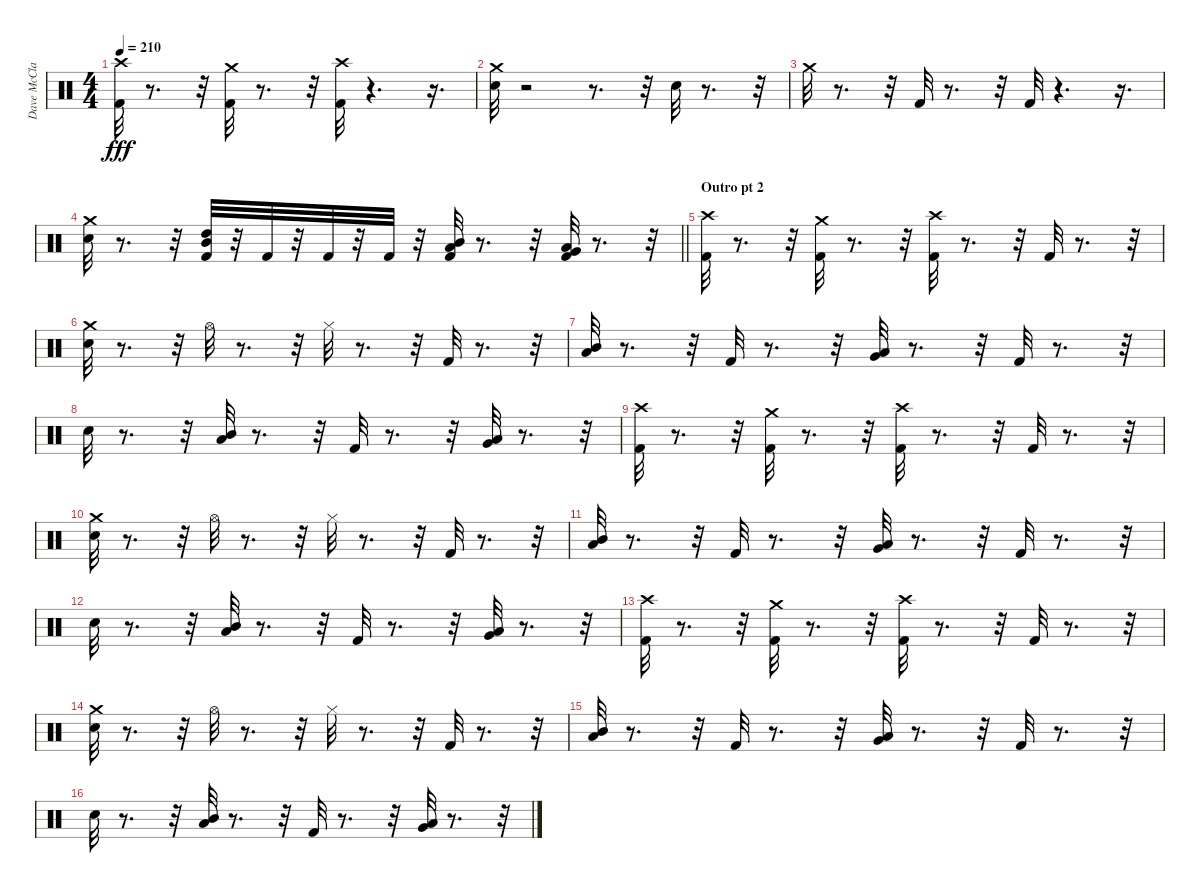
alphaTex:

\track ("Dave McClain" "Dave McCla") {instrument percussion}
\staff {score}
\articulation defaults
\ts (4 4)
\tempo 210
\clef neutral
\ks c
("Crash high (hit)" "Kick (hit) 2").32{dy fff} r.8{d} r.32 ("Crash medium (hit)" "Kick (hit) 2").32 r.8{d} r.32 ("Kick (hit) 2" "Crash high (hit)").32 r.4{d} r.16{d} |
("Crash medium (hit)" "Snare (hit) 2").32 r.2 r.8{d} r.32 "Snare (hit) 2".32 r.8{d} r.32 |
"Crash medium (hit)".32 r.8{d} r.32 "Kick (hit) 2".32 r.8{d} r.32 "Kick (hit) 2".32 r.4{d} r.16{d} |
\barLineRight lightlight
("Snare (hit) 2" "Crash medium (hit)").32 r.8{d} r.32 ("Kick (hit) 2" "Mid Tom (hit)" "High Tom (hit)").32 r.32 "Kick (hit) 2".32 r.32 "Kick (hit) 2".32 r.32 "Kick (hit) 2".32 r.32 ("Kick (hit) 2" "Mid Tom (hit)" "Low Tom (hit)").32 r.8{d} r.32 ("Kick (hit) 2" "Low Tom (hit)" "Very Low Tom (hit)").32 r.8{d} r.32 |
\section ("" "Outro pt 2")
("Crash high (hit)" "Kick (hit) 2").32 r.8{d} r.32 ("Crash medium (hit)" "Kick (hit) 2").32 r.8{d} r.32 ("Kick (hit) 2" "Crash high (hit)").32 r.8{d} r.32 "Kick (hit) 2".32 r.8{d} r.32 |
("Crash medium (hit)" "Snare (hit) 2").32 r.8{d} r.32 "Hi-Hat (open)".32 r.8{d} r.32 "Hi-Hat (closed)".32 r.8{d} r.32 "Kick (hit) 2".32 r.8{d} r.32 |
("Mid Tom (hit)" "Low Tom (hit)").32 r.8{d} r.32 "Kick (hit) 2".32 r.8{d} r.32 ("Low Tom (hit)" "Very Low Tom (hit)").32 r.8{d} r.32 "Kick (hit) 2".32 r.8{d} r.32 |
"Snare (hit) 2".32 r.8{d} r.32 ("Mid Tom (hit)" "Low Tom (hit)").32 r.8{d} r.32 "Kick (hit) 2".32 r.8{d} r.32 ("Low Tom (hit)" "Very Low Tom (hit)").32 r.8{d} r.32 |
("Crash high (hit)" "Kick (hit) 2").32 r.8{d} r.32 ("Crash medium (hit)" "Kick (hit) 2").32 r.8{d} r.32 ("Kick (hit) 2" "Crash high (hit)").32 r.8{d} r.32 "Kick (hit) 2".32 r.8{d} r.32 |
("Crash medium (hit)" "Snare (hit) 2").32 r.8{d} r.32 "Hi-Hat (open)".32 r.8{d} r.32 "Hi-Hat (closed)".32 r.8{d} r.32 "Kick (hit) 2".32 r.8{d} r.32 |
("Mid Tom (hit)" "Low Tom (hit)").32 r.8{d} r.32 "Kick (hit) 2".32 r.8{d} r.32 ("Low Tom (hit)" "Very Low Tom (hit)").32 r.8{d} r.32 "Kick (hit) 2".32 r.8{d} r.32 |
"Snare (hit) 2".32 r.8{d} r.32 ("Mid Tom (hit)" "Low Tom (hit)").32 r.8{d} r.32 "Kick (hit) 2".32 r.8{d} r.32 ("Low Tom (hit)" "Very Low Tom (hit)").32 r.8{d} r.32 |
("Crash high (hit)" "Kick (hit) 2").32 r.8{d} r.32 ("Crash medium (hit)" "Kick (hit) 2").32 r.8{d} r.32 ("Kick (hit) 2" "Crash high (hit)").32 r.8{d} r.32 "Kick (hit) 2".32 r.8{d} r.32 |
("Crash medium (hit)" "Snare (hit) 2").32 r.8{d} r.32 "Hi-Hat (open)".32 r.8{d} r.32 "Hi-Hat (closed)".32 r.8{d} r.32 "Kick (hit) 2".32 r.8{d} r.32 |
("Mid Tom (hit)" "Low Tom (hit)").32 r.8{d} r.32 "Kick (hit) 2".32 r.8{d} r.32 ("Low Tom (hit)" "Very Low Tom (hit)").32 r.8{d} r.32 "Kick (hit) 2".32 r.8{d} r.32 |
"Snare (hit) 2".32 r.8{d} r.32 ("Mid Tom (hit)" "Low Tom (hit)").32 r.8{d} r.32 "Kick (hit) 2".32 r.8{d} r.32 ("Low Tom (hit)" "Very Low Tom (hit)").32 r.8{d} r.32
